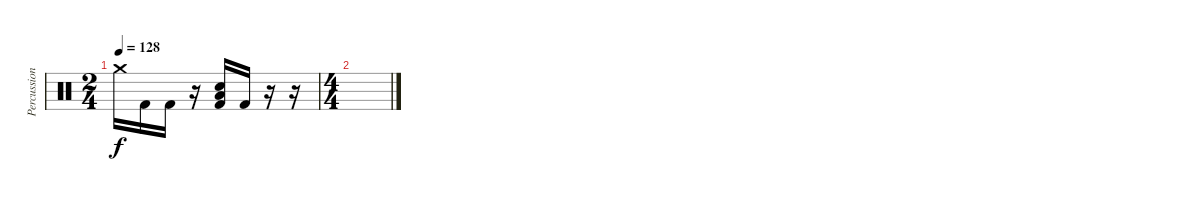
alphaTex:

\track ("Percussion" "Percussion") {instrument percussion}
\staff {score}
\articulation defaults
\ts (2 4)
\tempo 128
\clef neutral
\ks c "Crash medium (hit)".16{dy f} "Kick (hit) 2".16 "Kick (hit) 2".16
r.16 ("Electric Snare (hit)" "Low Floor Tom (hit)" "Kick (hit) 2").16 "Kick (hit) 2".16 r.16 r.16 |
\ts (4 4)
